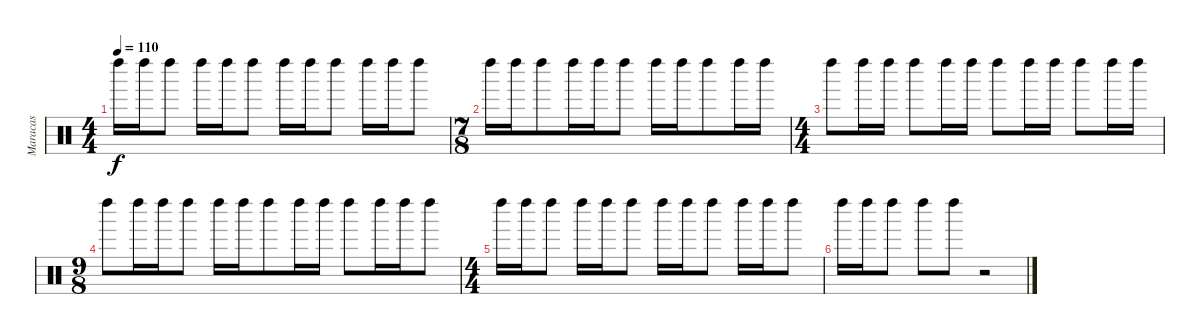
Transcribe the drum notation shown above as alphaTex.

\track ("Maracas" "Maracas") {instrument percussion}
\staff {score}
\articulation defaults
\ts (4 4)
\tempo 110
\clef neutral
\ks c "Left Maraca (hit)".16{dy f} "Left Maraca (hit)".16 "Left Maraca (hit)".8 "Left Maraca (hit)".16 "Left Maraca (hit)".16 "Left Maraca (hit)".8 "Left Maraca (hit)".16 "Left Maraca (hit)".16 "Left Maraca (hit)".8 "Left Maraca (hit)".16 "Left Maraca (hit)".16 "Left Maraca (hit)".8
|
\ts (7 8)
"Left Maraca (hit)".16 "Left Maraca (hit)".16 "Left Maraca (hit)".8 "Left Maraca (hit)".16 "Left Maraca (hit)".16 "Left Maraca (hit)".8 "Left Maraca (hit)".16 "Left Maraca (hit)".16 "Left Maraca (hit)".8 "Left Maraca (hit)".16 "Left Maraca (hit)".16 |
\ts (4 4)
"Left Maraca (hit)".8 "Left Maraca (hit)".16 "Left Maraca (hit)".16 "Left Maraca (hit)".8 "Left Maraca (hit)".16 "Left Maraca (hit)".16 "Left Maraca (hit)".8 "Left Maraca (hit)".16 "Left Maraca (hit)".16 "Left Maraca (hit)".8 "Left Maraca (hit)".16 "Left Maraca (hit)".16 |
\ts (9 8)
"Left Maraca (hit)".8 "Left Maraca (hit)".16 "Left Maraca (hit)".16 "Left Maraca (hit)".8 "Left Maraca (hit)".16 "Left Maraca (hit)".16 "Left Maraca (hit)".8 "Left Maraca (hit)".16 "Left Maraca (hit)".16 "Left Maraca (hit)".8 "Left Maraca (hit)".16 "Left Maraca (hit)".16 "Left Maraca (hit)".8 |
\ts (4 4)
"Left Maraca (hit)".16 "Left Maraca (hit)".16 "Left Maraca (hit)".8 "Left Maraca (hit)".16 "Left Maraca (hit)".16 "Left Maraca (hit)".8 "Left Maraca (hit)".16 "Left Maraca (hit)".16 "Left Maraca (hit)".8 "Left Maraca (hit)".16 "Left Maraca (hit)".16 "Left Maraca (hit)".8 |
"Left Maraca (hit)".16 "Left Maraca (hit)".16 "Left Maraca (hit)".8 "Left Maraca (hit)".8 "Left Maraca (hit)".8 r.2
